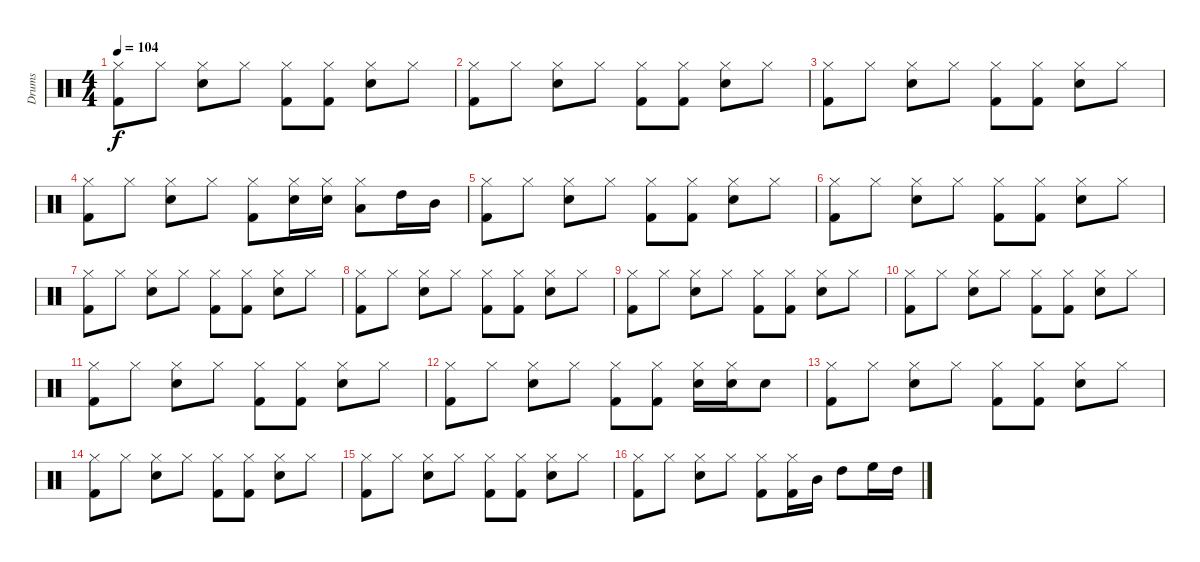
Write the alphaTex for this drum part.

\track ("Drums" "Drums") {instrument percussion}
\staff {score}
\articulation defaults
\ts (4 4)
\tempo 104
\clef neutral
\ks c
("Kick (hit) 2" "Hi-Hat (closed)").8{dy f} "Hi-Hat (closed)".8 ("Snare (hit) 2" "Hi-Hat (closed)").8 "Hi-Hat (closed)".8 ("Kick (hit) 2" "Hi-Hat (closed)").8 ("Kick (hit) 2" "Hi-Hat (closed)").8 ("Snare (hit) 2" "Hi-Hat (closed)").8 "Hi-Hat (closed)".8 |
("Kick (hit) 2" "Hi-Hat (closed)").8 "Hi-Hat (closed)".8 ("Snare (hit) 2" "Hi-Hat (closed)").8 "Hi-Hat (closed)".8 ("Kick (hit) 2" "Hi-Hat (closed)").8 ("Kick (hit) 2" "Hi-Hat (closed)").8 ("Snare (hit) 2" "Hi-Hat (closed)").8 "Hi-Hat (closed)".8 |
("Kick (hit) 2" "Hi-Hat (closed)").8 "Hi-Hat (closed)".8 ("Snare (hit) 2" "Hi-Hat (closed)").8 "Hi-Hat (closed)".8 ("Kick (hit) 2" "Hi-Hat (closed)").8 ("Kick (hit) 2" "Hi-Hat (closed)").8 ("Snare (hit) 2" "Hi-Hat (closed)").8 "Hi-Hat (closed)".8 |
("Kick (hit) 2" "Hi-Hat (closed)").8 "Hi-Hat (closed)".8 ("Snare (hit) 2" "Hi-Hat (closed)").8 "Hi-Hat (closed)".8 ("Kick (hit) 2" "Hi-Hat (closed)").8 ("Snare (hit) 2" "Hi-Hat (closed)").16 ("Snare (hit) 2" "Hi-Hat (closed)").16 ("Low Tom (hit)" "Hi-Hat (closed)").8 "High Tom (hit)".16 "Mid Tom (hit)".16 |
("Kick (hit) 2" "Hi-Hat (closed)").8 "Hi-Hat (closed)".8 ("Snare (hit) 2" "Hi-Hat (closed)").8 "Hi-Hat (closed)".8 ("Kick (hit) 2" "Hi-Hat (closed)").8 ("Kick (hit) 2" "Hi-Hat (closed)").8 ("Snare (hit) 2" "Hi-Hat (closed)").8 "Hi-Hat (closed)".8 |
("Kick (hit) 2" "Hi-Hat (closed)").8 "Hi-Hat (closed)".8 ("Snare (hit) 2" "Hi-Hat (closed)").8 "Hi-Hat (closed)".8 ("Kick (hit) 2" "Hi-Hat (closed)").8 ("Kick (hit) 2" "Hi-Hat (closed)").8 ("Snare (hit) 2" "Hi-Hat (closed)").8 "Hi-Hat (closed)".8 |
("Kick (hit) 2" "Hi-Hat (closed)").8 "Hi-Hat (closed)".8 ("Snare (hit) 2" "Hi-Hat (closed)").8 "Hi-Hat (closed)".8 ("Kick (hit) 2" "Hi-Hat (closed)").8 ("Kick (hit) 2" "Hi-Hat (closed)").8 ("Snare (hit) 2" "Hi-Hat (closed)").8 "Hi-Hat (closed)".8 |
("Kick (hit) 2" "Hi-Hat (closed)").8 "Hi-Hat (closed)".8 ("Snare (hit) 2" "Hi-Hat (closed)").8 "Hi-Hat (closed)".8 ("Kick (hit) 2" "Hi-Hat (closed)").8 ("Kick (hit) 2" "Hi-Hat (closed)").8 ("Snare (hit) 2" "Hi-Hat (closed)").8 "Hi-Hat (closed)".8 |
("Kick (hit) 2" "Hi-Hat (closed)").8 "Hi-Hat (closed)".8 ("Snare (hit) 2" "Hi-Hat (closed)").8 "Hi-Hat (closed)".8 ("Kick (hit) 2" "Hi-Hat (closed)").8 ("Kick (hit) 2" "Hi-Hat (closed)").8 ("Snare (hit) 2" "Hi-Hat (closed)").8 "Hi-Hat (closed)".8 |
("Kick (hit) 2" "Hi-Hat (closed)").8 "Hi-Hat (closed)".8 ("Snare (hit) 2" "Hi-Hat (closed)").8 "Hi-Hat (closed)".8 ("Kick (hit) 2" "Hi-Hat (closed)").8 ("Kick (hit) 2" "Hi-Hat (closed)").8 ("Snare (hit) 2" "Hi-Hat (closed)").8 "Hi-Hat (closed)".8 |
("Kick (hit) 2" "Hi-Hat (closed)").8 "Hi-Hat (closed)".8 ("Snare (hit) 2" "Hi-Hat (closed)").8 "Hi-Hat (closed)".8 ("Kick (hit) 2" "Hi-Hat (closed)").8 ("Kick (hit) 2" "Hi-Hat (closed)").8 ("Snare (hit) 2" "Hi-Hat (closed)").8 "Hi-Hat (closed)".8 |
("Kick (hit) 2" "Hi-Hat (closed)").8 "Hi-Hat (closed)".8 ("Snare (hit) 2" "Hi-Hat (closed)").8 "Hi-Hat (closed)".8 ("Kick (hit) 2" "Hi-Hat (closed)").8 ("Kick (hit) 2" "Hi-Hat (closed)").8 ("Snare (hit) 2" "Hi-Hat (closed)").16 ("Snare (hit) 2" "Hi-Hat (closed)").16 "Snare (hit) 2".8 |
("Kick (hit) 2" "Hi-Hat (closed)").8 "Hi-Hat (closed)".8 ("Snare (hit) 2" "Hi-Hat (closed)").8 "Hi-Hat (closed)".8 ("Kick (hit) 2" "Hi-Hat (closed)").8 ("Kick (hit) 2" "Hi-Hat (closed)").8 ("Snare (hit) 2" "Hi-Hat (closed)").8 "Hi-Hat (closed)".8 |
("Kick (hit) 2" "Hi-Hat (closed)").8 "Hi-Hat (closed)".8 ("Snare (hit) 2" "Hi-Hat (closed)").8 "Hi-Hat (closed)".8 ("Kick (hit) 2" "Hi-Hat (closed)").8 ("Kick (hit) 2" "Hi-Hat (closed)").8 ("Snare (hit) 2" "Hi-Hat (closed)").8 "Hi-Hat (closed)".8 |
("Kick (hit) 2" "Hi-Hat (closed)").8 "Hi-Hat (closed)".8 ("Snare (hit) 2" "Hi-Hat (closed)").8 "Hi-Hat (closed)".8 ("Kick (hit) 2" "Hi-Hat (closed)").8 ("Kick (hit) 2" "Hi-Hat (closed)").8 ("Snare (hit) 2" "Hi-Hat (closed)").8 "Hi-Hat (closed)".8 |
("Kick (hit) 2" "Hi-Hat (closed)").8 "Hi-Hat (closed)".8 ("Snare (hit) 2" "Hi-Hat (closed)").8 "Hi-Hat (closed)".8 ("Kick (hit) 2" "Hi-Hat (closed)").8 ("Kick (hit) 2" "Hi-Hat (closed)").16 "Mid Tom (hit)".16 "High Tom (hit)".8 "High Floor Tom (hit)".16 "High Tom (hit)".16
